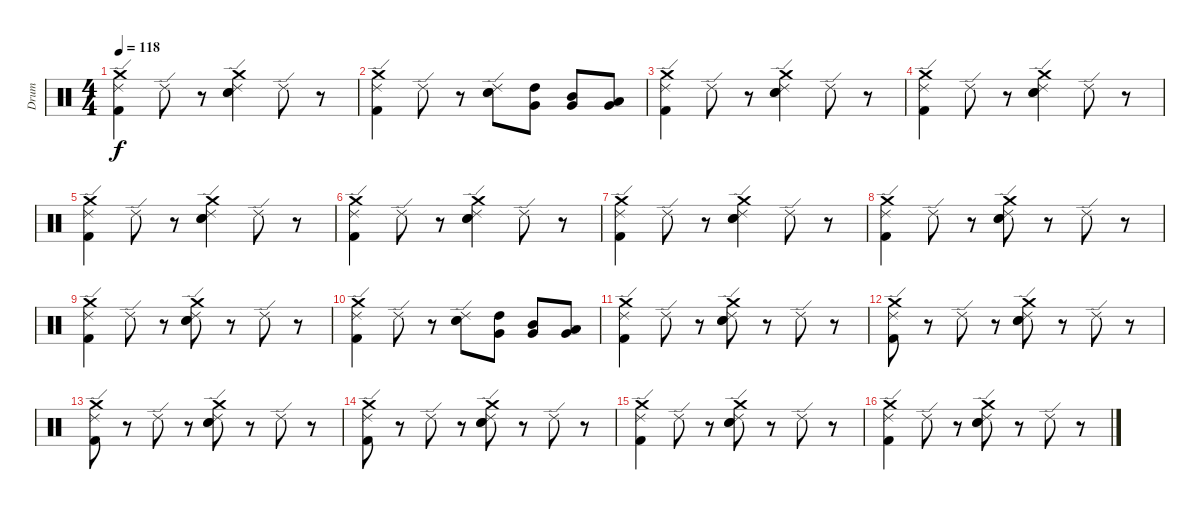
\track (" Drum" " Drum") {instrument percussion}
\staff {score}
\articulation defaults
\ts (4 4)
\tempo 118
\clef neutral
\ks c
("Crash medium (hit)" "Kick (hit) 2" "Ride (edge) 2").4{dy f volume 11} "Ride (edge) 2".8 r.8 ("Crash medium (hit)" "Electric Snare (hit)" "Snare (hit) 2" "Ride (edge) 2").4{volume 11} "Ride (edge) 2".8{volume 11} r.8 |
("Crash medium (hit)" "Kick (hit) 2" "Ride (edge) 2").4 "Ride (edge) 2".8{volume 11} r.8 ("Electric Snare (hit)" "Snare (hit) 2" "Ride (edge) 2").8{volume 11} ("Very Low Tom (hit)" "High Tom (hit)").8 ("Mid Tom (hit)" "Very Low Tom (hit)").8 ("Low Tom (hit)" "Very Low Tom (hit)").8{volume 10} |
("Crash medium (hit)" "Kick (hit) 2" "Ride (edge) 2").4 "Ride (edge) 2".8{volume 10} r.8 ("Crash medium (hit)" "Electric Snare (hit)" "Snare (hit) 2" "Ride (edge) 2").4 "Ride (edge) 2".8{volume 10} r.8 |
("Crash medium (hit)" "Kick (hit) 2" "Ride (edge) 2").4{volume 10} "Ride (edge) 2".8 r.8 ("Crash medium (hit)" "Electric Snare (hit)" "Snare (hit) 2" "Ride (edge) 2").4{volume 10} "Ride (edge) 2".8{volume 10} r.8 |
("Crash medium (hit)" "Kick (hit) 2" "Ride (edge) 2").4 "Ride (edge) 2".8{volume 10} r.8 ("Crash medium (hit)" "Electric Snare (hit)" "Snare (hit) 2" "Ride (edge) 2").4 "Ride (edge) 2".8{volume 10} r.8 |
("Crash medium (hit)" "Kick (hit) 2" "Ride (edge) 2").4{volume 10} "Ride (edge) 2".8 r.8 ("Crash medium (hit)" "Electric Snare (hit)" "Snare (hit) 2" "Ride (edge) 2").4{volume 9} "Ride (edge) 2".8{volume 9} r.8 |
("Crash medium (hit)" "Kick (hit) 2" "Ride (edge) 2").4 "Ride (edge) 2".8{volume 9} r.8 ("Crash medium (hit)" "Electric Snare (hit)" "Snare (hit) 2" "Ride (edge) 2").4{volume 9} "Ride (edge) 2".8 r.8 |
("Crash medium (hit)" "Kick (hit) 2" "Ride (edge) 2").4{volume 9} "Ride (edge) 2".8{volume 9} r.8 ("Crash medium (hit)" "Electric Snare (hit)" "Snare (hit) 2" "Ride (edge) 2").8 r.8 "Ride (edge) 2".8{volume 9} r.8 |
("Crash medium (hit)" "Kick (hit) 2" "Ride (edge) 2").4{volume 8} "Ride (edge) 2".8 r.8 ("Crash medium (hit)" "Electric Snare (hit)" "Snare (hit) 2" "Ride (edge) 2").8{volume 8} r.8 "Ride (edge) 2".8{volume 8} r.8 |
("Crash medium (hit)" "Kick (hit) 2" "Ride (edge) 2").4 "Ride (edge) 2".8{volume 8} r.8 ("Electric Snare (hit)" "Snare (hit) 2" "Ride (edge) 2").8{volume 8} ("Very Low Tom (hit)" "High Tom (hit)").8 ("Mid Tom (hit)" "Very Low Tom (hit)").8 ("Low Tom (hit)" "Very Low Tom (hit)").8{volume 8} |
("Crash medium (hit)" "Kick (hit) 2" "Ride (edge) 2").4 "Ride (edge) 2".8 r.8 ("Crash medium (hit)" "Electric Snare (hit)" "Snare (hit) 2" "Ride (edge) 2").8{volume 8} r.8 "Ride (edge) 2".8{volume 8} r.8 |
("Crash medium (hit)" "Kick (hit) 2" "Ride (edge) 2").8 r.8 "Ride (edge) 2".8{volume 8} r.8 ("Crash medium (hit)" "Electric Snare (hit)" "Snare (hit) 2" "Ride (edge) 2").8{volume 7} r.8 "Ride (edge) 2".8 r.8 |
("Crash medium (hit)" "Kick (hit) 2" "Ride (edge) 2").8{volume 7} r.8 "Ride (edge) 2".8{volume 7} r.8 ("Crash medium (hit)" "Electric Snare (hit)" "Snare (hit) 2" "Ride (edge) 2").8 r.8 "Ride (edge) 2".8{volume 7} r.8 |
("Crash medium (hit)" "Kick (hit) 2" "Ride (edge) 2").8{volume 7} r.8 "Ride (edge) 2".8 r.8 ("Crash medium (hit)" "Electric Snare (hit)" "Snare (hit) 2" "Ride (edge) 2").8{volume 7} r.8 "Ride (edge) 2".8{volume 7} r.8 |
("Crash medium (hit)" "Kick (hit) 2" "Ride (edge) 2").4 "Ride (edge) 2".8{volume 6} r.8 ("Crash medium (hit)" "Electric Snare (hit)" "Snare (hit) 2" "Ride (edge) 2").8{volume 6} r.8 "Ride (edge) 2".8 r.8 |
("Crash medium (hit)" "Kick (hit) 2" "Ride (edge) 2").4{volume 6} "Ride (edge) 2".8{volume 6} r.8 ("Crash medium (hit)" "Electric Snare (hit)" "Snare (hit) 2" "Ride (edge) 2").8 r.8 "Ride (edge) 2".8{volume 6} r.8
